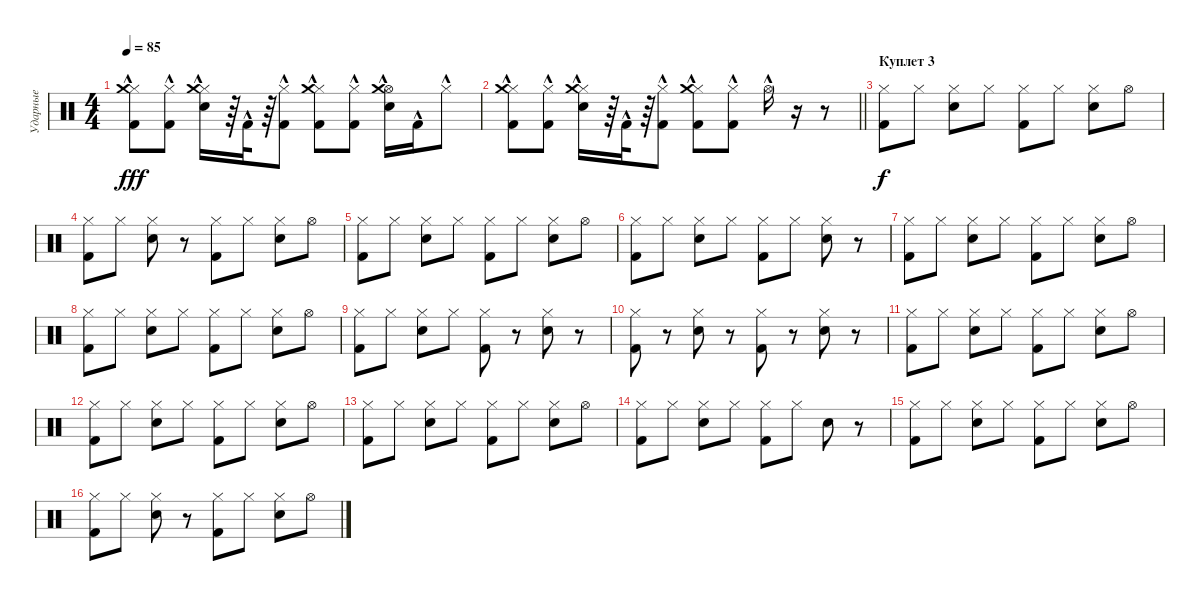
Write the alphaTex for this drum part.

\track ("Ударные" "Ударные") {instrument percussion}
\staff {score}
\articulation defaults
\ts (4 4)
\tempo 85
\clef neutral
\ks c
("Hi-Hat (closed)"{hac} "Kick (hit) 2"{hac} "Crash medium (hit)"{hac}).8{dy fff} ("Hi-Hat (closed)"{hac} "Kick (hit) 2"{hac}).8 ("Hi-Hat (closed)"{hac} "Electric Snare (hit)"{hac} "Crash medium (hit)"{hac}).16 r.64 "Kick (hit) 2"{hac}.32 r.64 ("Hi-Hat (closed)"{hac} "Kick (hit) 2"{hac}).8 ("Hi-Hat (closed)"{hac} "Kick (hit) 2"{hac} "Crash medium (hit)"{hac}).8 ("Hi-Hat (closed)"{hac} "Kick (hit) 2"{hac}).8 ("Hi-Hat (open)"{hac} "Electric Snare (hit)"{hac} "Crash medium (hit)"{hac}).16 "Kick (hit) 2"{hac}.16 "Hi-Hat (closed)"{hac}.8 |
\barLineRight lightlight
("Hi-Hat (closed)"{hac} "Kick (hit) 2"{hac} "Crash medium (hit)"{hac}).8 ("Hi-Hat (closed)"{hac} "Kick (hit) 2"{hac}).8 ("Hi-Hat (closed)"{hac} "Electric Snare (hit)"{hac} "Crash medium (hit)"{hac}).16 r.64 "Kick (hit) 2"{hac}.32 r.64 ("Hi-Hat (closed)"{hac} "Kick (hit) 2"{hac}).8 ("Hi-Hat (closed)"{hac} "Kick (hit) 2"{hac} "Crash medium (hit)"{hac}).8 ("Hi-Hat (closed)"{hac} "Kick (hit) 2"{hac}).8 "Hi-Hat (open)"{hac}.16 r.16 r.8 |
\section ("" "Куплет 3")
("Hi-Hat (closed)" "Kick (hit) 2").8{dy f} "Hi-Hat (closed)".8 ("Hi-Hat (closed)" "Electric Snare (hit)").8 "Hi-Hat (closed)".8 ("Hi-Hat (closed)" "Kick (hit) 2").8 "Hi-Hat (closed)".8 ("Hi-Hat (closed)" "Electric Snare (hit)").8 "Hi-Hat (open)".8 |
("Hi-Hat (closed)" "Kick (hit) 2").8 "Hi-Hat (closed)".8 ("Hi-Hat (closed)" "Electric Snare (hit)").8 r.8 ("Hi-Hat (closed)" "Kick (hit) 2").8 "Hi-Hat (closed)".8 ("Hi-Hat (closed)" "Electric Snare (hit)").8 "Hi-Hat (open)".8 |
("Hi-Hat (closed)" "Kick (hit) 2").8 "Hi-Hat (closed)".8 ("Hi-Hat (closed)" "Electric Snare (hit)").8 "Hi-Hat (closed)".8 ("Hi-Hat (closed)" "Kick (hit) 2").8 "Hi-Hat (closed)".8 ("Hi-Hat (closed)" "Electric Snare (hit)").8 "Hi-Hat (open)".8 |
("Hi-Hat (closed)" "Kick (hit) 2").8 "Hi-Hat (closed)".8 ("Hi-Hat (closed)" "Electric Snare (hit)").8 "Hi-Hat (closed)".8 ("Hi-Hat (closed)" "Kick (hit) 2").8 "Hi-Hat (closed)".8 ("Hi-Hat (closed)" "Electric Snare (hit)").8 r.8 |
("Hi-Hat (closed)" "Kick (hit) 2").8 "Hi-Hat (closed)".8 ("Hi-Hat (closed)" "Electric Snare (hit)").8 "Hi-Hat (closed)".8 ("Hi-Hat (closed)" "Kick (hit) 2").8 "Hi-Hat (closed)".8 ("Hi-Hat (closed)" "Electric Snare (hit)").8 "Hi-Hat (open)".8 |
("Hi-Hat (closed)" "Kick (hit) 2").8 "Hi-Hat (closed)".8 ("Hi-Hat (closed)" "Electric Snare (hit)").8 "Hi-Hat (closed)".8 ("Hi-Hat (closed)" "Kick (hit) 2").8 "Hi-Hat (closed)".8 ("Hi-Hat (closed)" "Electric Snare (hit)").8 "Hi-Hat (open)".8 |
("Hi-Hat (closed)" "Kick (hit) 2").8 "Hi-Hat (closed)".8 ("Hi-Hat (closed)" "Electric Snare (hit)").8 "Hi-Hat (closed)".8 ("Hi-Hat (closed)" "Kick (hit) 2").8 r.8 ("Hi-Hat (closed)" "Electric Snare (hit)").8 r.8 |
("Hi-Hat (closed)" "Kick (hit) 2").8 r.8 ("Hi-Hat (closed)" "Electric Snare (hit)").8 r.8 ("Hi-Hat (closed)" "Kick (hit) 2").8 r.8 ("Hi-Hat (closed)" "Electric Snare (hit)").8 r.8 |
("Hi-Hat (closed)" "Kick (hit) 2").8 "Hi-Hat (closed)".8 ("Hi-Hat (closed)" "Electric Snare (hit)").8 "Hi-Hat (closed)".8 ("Hi-Hat (closed)" "Kick (hit) 2").8 "Hi-Hat (closed)".8 ("Hi-Hat (closed)" "Electric Snare (hit)").8 "Hi-Hat (open)".8 |
("Hi-Hat (closed)" "Kick (hit) 2").8 "Hi-Hat (closed)".8 ("Hi-Hat (closed)" "Electric Snare (hit)").8 "Hi-Hat (closed)".8 ("Hi-Hat (closed)" "Kick (hit) 2").8 "Hi-Hat (closed)".8 ("Hi-Hat (closed)" "Electric Snare (hit)").8 "Hi-Hat (open)".8 |
("Hi-Hat (closed)" "Kick (hit) 2").8 "Hi-Hat (closed)".8 ("Hi-Hat (closed)" "Electric Snare (hit)").8 "Hi-Hat (closed)".8 ("Hi-Hat (closed)" "Kick (hit) 2").8 "Hi-Hat (closed)".8 ("Hi-Hat (closed)" "Electric Snare (hit)").8 "Hi-Hat (open)".8 |
("Hi-Hat (closed)" "Kick (hit) 2").8 "Hi-Hat (closed)".8 ("Hi-Hat (closed)" "Electric Snare (hit)").8 "Hi-Hat (closed)".8 ("Hi-Hat (closed)" "Kick (hit) 2").8 "Hi-Hat (closed)".8 "Electric Snare (hit)".8 r.8 |
("Hi-Hat (closed)" "Kick (hit) 2").8 "Hi-Hat (closed)".8 ("Hi-Hat (closed)" "Electric Snare (hit)").8 "Hi-Hat (closed)".8 ("Hi-Hat (closed)" "Kick (hit) 2").8 "Hi-Hat (closed)".8 ("Hi-Hat (closed)" "Electric Snare (hit)").8 "Hi-Hat (open)".8 |
("Hi-Hat (closed)" "Kick (hit) 2").8 "Hi-Hat (closed)".8 ("Hi-Hat (closed)" "Electric Snare (hit)").8 r.8 ("Hi-Hat (closed)" "Kick (hit) 2").8 "Hi-Hat (closed)".8 ("Hi-Hat (closed)" "Electric Snare (hit)").8 "Hi-Hat (open)".8
